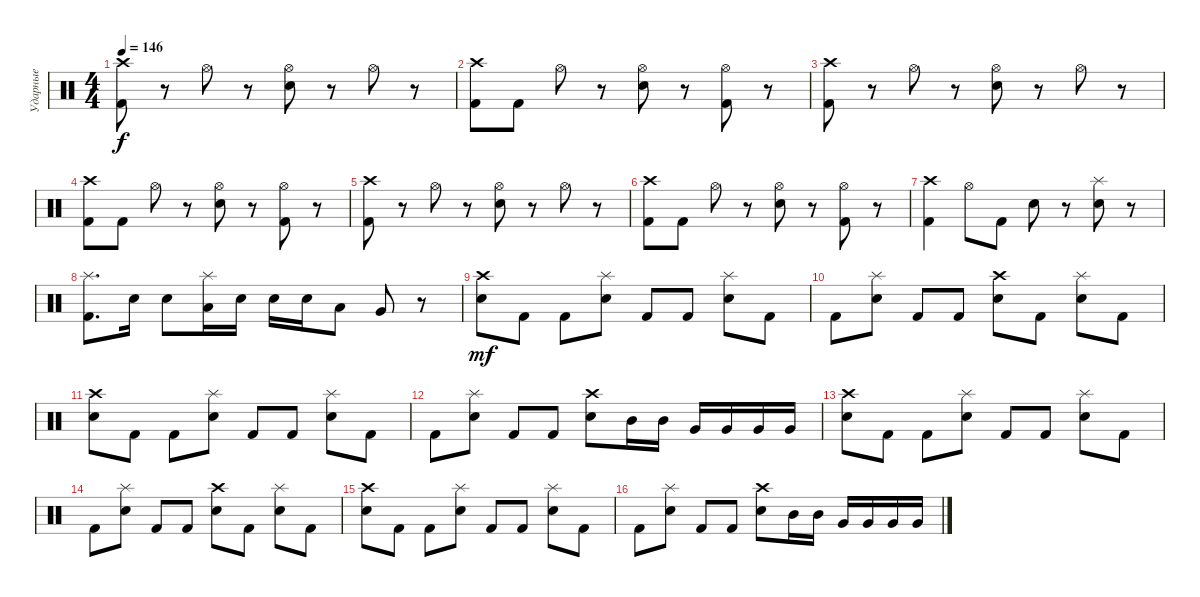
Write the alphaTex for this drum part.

\track ("Ударные" "Ударные") {instrument percussion}
\staff {score}
\articulation defaults
\ts (4 4)
\tempo 146
\clef neutral
\ks c
("Crash high (hit)" "Kick (hit) 2").8{dy f} r.8 "Hi-Hat (open)".8 r.8 ("Hi-Hat (open)" "Snare (hit) 2").8 r.8 "Hi-Hat (open)".8 r.8 |
("Crash high (hit)" "Kick (hit) 2").8 "Kick (hit) 2".8 "Hi-Hat (open)".8 r.8 ("Hi-Hat (open)" "Snare (hit) 2").8 r.8 ("Hi-Hat (open)" "Kick (hit) 2").8 r.8 |
("Crash high (hit)" "Kick (hit) 2").8 r.8 "Hi-Hat (open)".8 r.8 ("Hi-Hat (open)" "Snare (hit) 2").8 r.8 "Hi-Hat (open)".8 r.8 |
("Crash high (hit)" "Kick (hit) 2").8 "Kick (hit) 2".8 "Hi-Hat (open)".8 r.8 ("Hi-Hat (open)" "Snare (hit) 2").8 r.8 ("Hi-Hat (open)" "Kick (hit) 2").8 r.8 |
("Crash high (hit)" "Kick (hit) 2").8 r.8 "Hi-Hat (open)".8 r.8 ("Hi-Hat (open)" "Snare (hit) 2").8 r.8 "Hi-Hat (open)".8 r.8 |
("Crash high (hit)" "Kick (hit) 2").8 "Kick (hit) 2".8 "Hi-Hat (open)".8 r.8 ("Hi-Hat (open)" "Snare (hit) 2").8 r.8 ("Hi-Hat (open)" "Kick (hit) 2").8 r.8 |
("Crash high (hit)" "Kick (hit) 2").4 "Hi-Hat (open)".8 "Kick (hit) 2".8 "Snare (hit) 2".8 r.8 ("Splash (hit)" "Snare (hit) 2").8 r.8 |
("Splash (hit)" "Kick (hit) 2").8{d} "Snare (hit) 2".16 "Snare (hit) 2".8 ("Splash (hit)" "Low Tom (hit)").16 "Snare (hit) 2".16 "Snare (hit) 2".16 "Snare (hit) 2".16 "Low Tom (hit)".8 "Very Low Tom (hit)".8 r.8 |
("Crash high (hit)" "Snare (hit) 2").8{dy mf} "Kick (hit) 2".8 "Kick (hit) 2".8 ("Splash (hit)" "Snare (hit) 2").8 "Kick (hit) 2".8 "Kick (hit) 2".8 ("Splash (hit)" "Snare (hit) 2").8 "Kick (hit) 2".8 |
"Kick (hit) 2".8 ("Splash (hit)" "Snare (hit) 2").8 "Kick (hit) 2".8 "Kick (hit) 2".8 ("Crash high (hit)" "Snare (hit) 2").8 "Kick (hit) 2".8 ("Splash (hit)" "Snare (hit) 2").8 "Kick (hit) 2".8 |
("Crash high (hit)" "Snare (hit) 2").8 "Kick (hit) 2".8 "Kick (hit) 2".8 ("Splash (hit)" "Snare (hit) 2").8 "Kick (hit) 2".8 "Kick (hit) 2".8 ("Splash (hit)" "Snare (hit) 2").8 "Kick (hit) 2".8 |
"Kick (hit) 2".8 ("Splash (hit)" "Snare (hit) 2").8 "Kick (hit) 2".8 "Kick (hit) 2".8 ("Crash high (hit)" "Snare (hit) 2").8 "Mid Tom (hit)".16 "Mid Tom (hit)".16 "Very Low Tom (hit)".16 "Very Low Tom (hit)".16 "Very Low Tom (hit)".16 "Very Low Tom (hit)".16 |
("Crash high (hit)" "Snare (hit) 2").8 "Kick (hit) 2".8 "Kick (hit) 2".8 ("Splash (hit)" "Snare (hit) 2").8 "Kick (hit) 2".8 "Kick (hit) 2".8 ("Splash (hit)" "Snare (hit) 2").8 "Kick (hit) 2".8 |
"Kick (hit) 2".8 ("Splash (hit)" "Snare (hit) 2").8 "Kick (hit) 2".8 "Kick (hit) 2".8 ("Crash high (hit)" "Snare (hit) 2").8 "Kick (hit) 2".8 ("Splash (hit)" "Snare (hit) 2").8 "Kick (hit) 2".8 |
("Crash high (hit)" "Snare (hit) 2").8 "Kick (hit) 2".8 "Kick (hit) 2".8 ("Splash (hit)" "Snare (hit) 2").8 "Kick (hit) 2".8 "Kick (hit) 2".8 ("Splash (hit)" "Snare (hit) 2").8 "Kick (hit) 2".8 |
"Kick (hit) 2".8 ("Splash (hit)" "Snare (hit) 2").8 "Kick (hit) 2".8 "Kick (hit) 2".8 ("Crash high (hit)" "Snare (hit) 2").8 "Mid Tom (hit)".16 "Mid Tom (hit)".16 "Very Low Tom (hit)".16 "Very Low Tom (hit)".16 "Very Low Tom (hit)".16 "Very Low Tom (hit)".16
